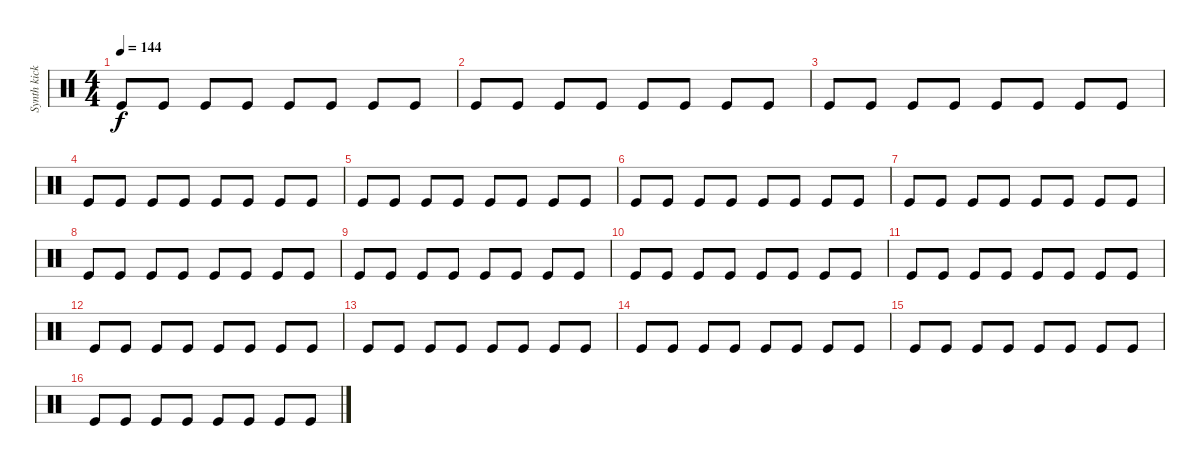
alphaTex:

\track ("Synth kick loop" "Synth kick") {instrument percussion}
\staff {score}
\articulation defaults
\ts (4 4)
\tempo 144
\clef neutral
\ks c "Kick (hit)".8{dy f} "Kick (hit)".8 "Kick (hit)".8 "Kick (hit)".8 "Kick (hit)".8 "Kick (hit)".8 "Kick (hit)".8 "Kick (hit)".8
|
"Kick (hit)".8 "Kick (hit)".8 "Kick (hit)".8 "Kick (hit)".8 "Kick (hit)".8 "Kick (hit)".8 "Kick (hit)".8 "Kick (hit)".8 |
"Kick (hit)".8 "Kick (hit)".8 "Kick (hit)".8 "Kick (hit)".8 "Kick (hit)".8 "Kick (hit)".8 "Kick (hit)".8 "Kick (hit)".8 |
"Kick (hit)".8 "Kick (hit)".8 "Kick (hit)".8 "Kick (hit)".8 "Kick (hit)".8 "Kick (hit)".8 "Kick (hit)".8 "Kick (hit)".8 |
"Kick (hit)".8 "Kick (hit)".8 "Kick (hit)".8 "Kick (hit)".8 "Kick (hit)".8 "Kick (hit)".8 "Kick (hit)".8 "Kick (hit)".8 |
"Kick (hit)".8 "Kick (hit)".8 "Kick (hit)".8 "Kick (hit)".8 "Kick (hit)".8 "Kick (hit)".8 "Kick (hit)".8 "Kick (hit)".8 |
"Kick (hit)".8 "Kick (hit)".8 "Kick (hit)".8 "Kick (hit)".8 "Kick (hit)".8 "Kick (hit)".8 "Kick (hit)".8 "Kick (hit)".8 |
"Kick (hit)".8 "Kick (hit)".8 "Kick (hit)".8 "Kick (hit)".8 "Kick (hit)".8 "Kick (hit)".8 "Kick (hit)".8 "Kick (hit)".8 |
"Kick (hit)".8 "Kick (hit)".8 "Kick (hit)".8 "Kick (hit)".8 "Kick (hit)".8 "Kick (hit)".8 "Kick (hit)".8 "Kick (hit)".8 |
"Kick (hit)".8 "Kick (hit)".8 "Kick (hit)".8 "Kick (hit)".8 "Kick (hit)".8 "Kick (hit)".8 "Kick (hit)".8 "Kick (hit)".8 |
"Kick (hit)".8 "Kick (hit)".8 "Kick (hit)".8 "Kick (hit)".8 "Kick (hit)".8 "Kick (hit)".8 "Kick (hit)".8 "Kick (hit)".8 |
"Kick (hit)".8 "Kick (hit)".8 "Kick (hit)".8 "Kick (hit)".8 "Kick (hit)".8 "Kick (hit)".8 "Kick (hit)".8 "Kick (hit)".8 |
"Kick (hit)".8 "Kick (hit)".8 "Kick (hit)".8 "Kick (hit)".8 "Kick (hit)".8 "Kick (hit)".8 "Kick (hit)".8 "Kick (hit)".8 |
"Kick (hit)".8 "Kick (hit)".8 "Kick (hit)".8 "Kick (hit)".8 "Kick (hit)".8 "Kick (hit)".8 "Kick (hit)".8 "Kick (hit)".8 |
"Kick (hit)".8 "Kick (hit)".8 "Kick (hit)".8 "Kick (hit)".8 "Kick (hit)".8 "Kick (hit)".8 "Kick (hit)".8 "Kick (hit)".8 |
"Kick (hit)".8 "Kick (hit)".8 "Kick (hit)".8 "Kick (hit)".8 "Kick (hit)".8 "Kick (hit)".8 "Kick (hit)".8 "Kick (hit)".8
